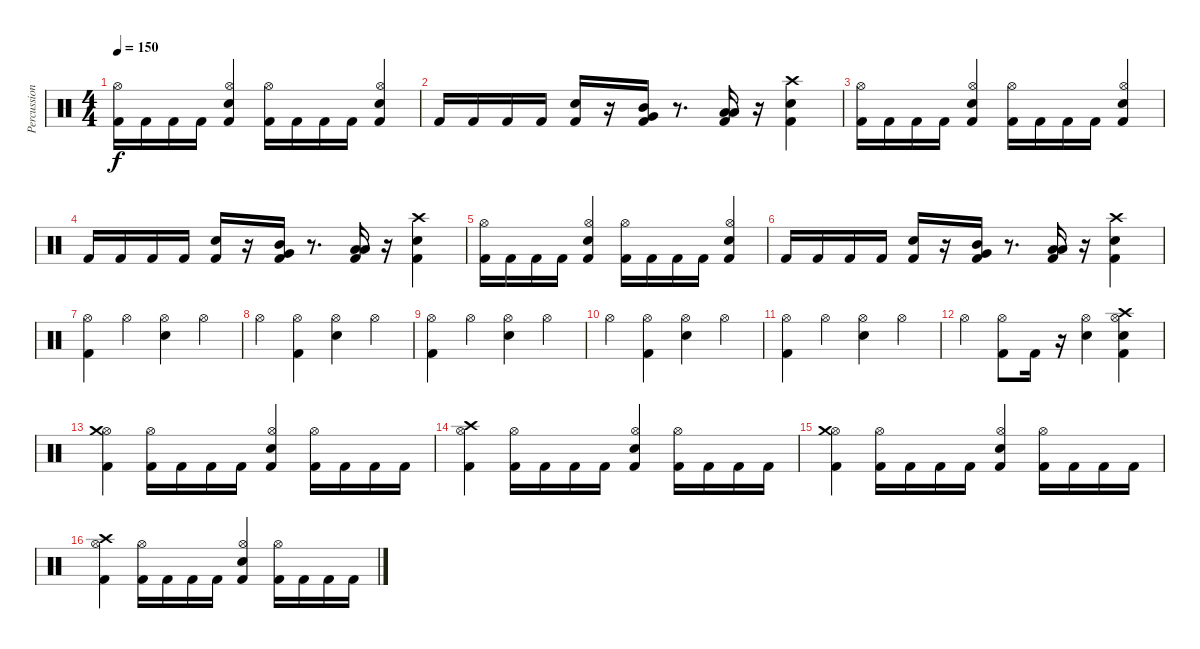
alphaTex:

\track ("Percussion" "Percussion") {instrument percussion}
\staff {score}
\articulation defaults
\ts (4 4)
\tempo 150
\clef neutral
\ks c
("Kick (hit) 2" "Hi-Hat (open)").16{dy f} "Kick (hit) 2".16 "Kick (hit) 2".16 "Kick (hit) 2".16 ("Kick (hit) 2" "Electric Snare (hit)" "Hi-Hat (open)").4 ("Kick (hit) 2" "Hi-Hat (open)").16 "Kick (hit) 2".16 "Kick (hit) 2".16 "Kick (hit) 2".16 ("Kick (hit) 2" "Electric Snare (hit)" "Hi-Hat (open)").4 |
"Kick (hit) 2".16 "Kick (hit) 2".16 "Kick (hit) 2".16 "Kick (hit) 2".16 ("Kick (hit) 2" "Electric Snare (hit)").16 r.16 ("Kick (hit) 2" "Very Low Tom (hit)" "Mid Tom (hit)").16 r.8{d} ("Kick (hit) 2" "Low Floor Tom (hit)" "Low Tom (hit)").16 r.16 ("Kick (hit) 2" "Electric Snare (hit)" "Crash high (hit)").4 |
("Kick (hit) 2" "Hi-Hat (open)").16 "Kick (hit) 2".16 "Kick (hit) 2".16 "Kick (hit) 2".16 ("Kick (hit) 2" "Electric Snare (hit)" "Hi-Hat (open)").4 ("Kick (hit) 2" "Hi-Hat (open)").16 "Kick (hit) 2".16 "Kick (hit) 2".16 "Kick (hit) 2".16 ("Kick (hit) 2" "Electric Snare (hit)" "Hi-Hat (open)").4 |
"Kick (hit) 2".16 "Kick (hit) 2".16 "Kick (hit) 2".16 "Kick (hit) 2".16 ("Kick (hit) 2" "Electric Snare (hit)").16 r.16 ("Kick (hit) 2" "Very Low Tom (hit)" "Mid Tom (hit)").16 r.8{d} ("Kick (hit) 2" "Low Floor Tom (hit)" "Low Tom (hit)").16 r.16 ("Kick (hit) 2" "Electric Snare (hit)" "Crash high (hit)").4 |
("Kick (hit) 2" "Hi-Hat (open)").16 "Kick (hit) 2".16 "Kick (hit) 2".16 "Kick (hit) 2".16 ("Kick (hit) 2" "Electric Snare (hit)" "Hi-Hat (open)").4 ("Kick (hit) 2" "Hi-Hat (open)").16 "Kick (hit) 2".16 "Kick (hit) 2".16 "Kick (hit) 2".16 ("Kick (hit) 2" "Electric Snare (hit)" "Hi-Hat (open)").4 |
"Kick (hit) 2".16 "Kick (hit) 2".16 "Kick (hit) 2".16 "Kick (hit) 2".16 ("Kick (hit) 2" "Electric Snare (hit)").16 r.16 ("Kick (hit) 2" "Very Low Tom (hit)" "Mid Tom (hit)").16 r.8{d} ("Kick (hit) 2" "Low Floor Tom (hit)" "Low Tom (hit)").16 r.16 ("Kick (hit) 2" "Electric Snare (hit)" "Crash high (hit)").4 |
("Kick (hit) 2" "Hi-Hat (open)").4 "Hi-Hat (open)".4 ("Electric Snare (hit)" "Hi-Hat (open)").4 "Hi-Hat (open)".4 |
"Hi-Hat (open)".4 ("Kick (hit) 2" "Hi-Hat (open)").4 ("Electric Snare (hit)" "Hi-Hat (open)").4 "Hi-Hat (open)".4 |
("Kick (hit) 2" "Hi-Hat (open)").4 "Hi-Hat (open)".4 ("Electric Snare (hit)" "Hi-Hat (open)").4 "Hi-Hat (open)".4 |
"Hi-Hat (open)".4 ("Kick (hit) 2" "Hi-Hat (open)").4 ("Electric Snare (hit)" "Hi-Hat (open)").4 "Hi-Hat (open)".4 |
("Kick (hit) 2" "Hi-Hat (open)").4 "Hi-Hat (open)".4 ("Electric Snare (hit)" "Hi-Hat (open)").4 "Hi-Hat (open)".4 |
"Hi-Hat (open)".4 ("Kick (hit) 2" "Hi-Hat (open)").8 "Kick (hit) 2".16 r.16 ("Electric Snare (hit)" "Hi-Hat (open)").4 ("Kick (hit) 2" "Electric Snare (hit)" "Hi-Hat (open)" "Crash high (hit)").4 |
("Kick (hit) 2" "Hi-Hat (open)" "Crash medium (hit)").4 ("Kick (hit) 2" "Hi-Hat (open)").16 "Kick (hit) 2".16 "Kick (hit) 2".16 "Kick (hit) 2".16 ("Kick (hit) 2" "Electric Snare (hit)" "Hi-Hat (open)").4 ("Kick (hit) 2" "Hi-Hat (open)").16 "Kick (hit) 2".16 "Kick (hit) 2".16 "Kick (hit) 2".16 |
("Kick (hit) 2" "Hi-Hat (open)" "Crash high (hit)").4 ("Kick (hit) 2" "Hi-Hat (open)").16 "Kick (hit) 2".16 "Kick (hit) 2".16 "Kick (hit) 2".16 ("Kick (hit) 2" "Electric Snare (hit)" "Hi-Hat (open)").4 ("Kick (hit) 2" "Hi-Hat (open)").16 "Kick (hit) 2".16 "Kick (hit) 2".16 "Kick (hit) 2".16 |
("Kick (hit) 2" "Hi-Hat (open)" "Crash medium (hit)").4 ("Kick (hit) 2" "Hi-Hat (open)").16 "Kick (hit) 2".16 "Kick (hit) 2".16 "Kick (hit) 2".16 ("Kick (hit) 2" "Electric Snare (hit)" "Hi-Hat (open)").4 ("Kick (hit) 2" "Hi-Hat (open)").16 "Kick (hit) 2".16 "Kick (hit) 2".16 "Kick (hit) 2".16 |
("Kick (hit) 2" "Hi-Hat (open)" "Crash high (hit)").4 ("Kick (hit) 2" "Hi-Hat (open)").16 "Kick (hit) 2".16 "Kick (hit) 2".16 "Kick (hit) 2".16 ("Kick (hit) 2" "Electric Snare (hit)" "Hi-Hat (open)").4 ("Kick (hit) 2" "Hi-Hat (open)").16 "Kick (hit) 2".16 "Kick (hit) 2".16 "Kick (hit) 2".16
